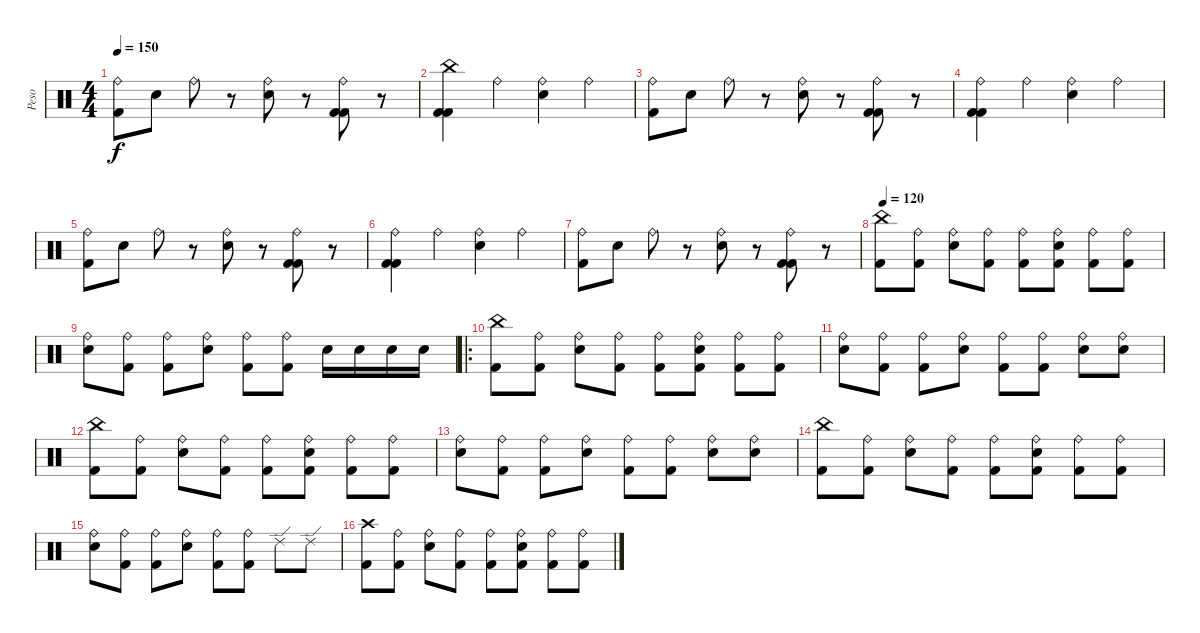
\track ("Peso" "Peso") {instrument percussion}
\staff {score}
\articulation defaults
\ts (4 4)
\tempo 150
\clef neutral
\ks c
("Ride (bell)" "Kick (hit) 2").8{dy f} "Snare (hit) 2".8 "Ride (bell)".8 r.8 ("Ride (bell)" "Snare (hit) 2").8 r.8 ("Ride (bell)" "Kick (hit) 2" "Kick (hit) 2").8 r.8 |
("China (hit)" "Kick (hit) 2" "Kick (hit) 2").4 "Ride (bell)".4 ("Ride (bell)" "Snare (hit) 2").4 "Ride (bell)".4 |
("Ride (bell)" "Kick (hit) 2").8 "Snare (hit) 2".8 "Ride (bell)".8 r.8 ("Ride (bell)" "Snare (hit) 2").8 r.8 ("Ride (bell)" "Kick (hit) 2" "Kick (hit) 2").8 r.8 |
("Ride (bell)" "Kick (hit) 2" "Kick (hit) 2").4 "Ride (bell)".4 ("Ride (bell)" "Snare (hit) 2").4 "Ride (bell)".4 |
("Ride (bell)" "Kick (hit) 2").8 "Snare (hit) 2".8 "Ride (bell)".8 r.8 ("Ride (bell)" "Snare (hit) 2").8 r.8 ("Ride (bell)" "Kick (hit) 2" "Kick (hit) 2").8 r.8 |
("Ride (bell)" "Kick (hit) 2" "Kick (hit) 2").4 "Ride (bell)".4 ("Ride (bell)" "Snare (hit) 2").4 "Ride (bell)".4 |
("Ride (bell)" "Kick (hit) 2").8 "Snare (hit) 2".8 "Ride (bell)".8 r.8 ("Ride (bell)" "Snare (hit) 2").8 r.8 ("Ride (bell)" "Kick (hit) 2" "Kick (hit) 2").8 r.8 |
\tempo 120
("China (hit)" "Kick (hit) 2").8 ("Ride (bell)" "Kick (hit) 2").8 ("Ride (bell)" "Snare (hit) 2").8 ("Ride (bell)" "Kick (hit) 2").8 ("Ride (bell)" "Kick (hit) 2").8 ("Ride (bell)" "Snare (hit) 2" "Kick (hit) 2").8 ("Ride (bell)" "Kick (hit) 2").8 ("Ride (bell)" "Kick (hit) 2").8 |
("Ride (bell)" "Snare (hit) 2").8 ("Ride (bell)" "Kick (hit) 2").8 ("Ride (bell)" "Kick (hit) 2").8 ("Ride (bell)" "Snare (hit) 2").8 ("Ride (bell)" "Kick (hit) 2").8 ("Ride (bell)" "Kick (hit) 2").8 "Snare (hit) 2".16 "Snare (hit) 2".16 "Snare (hit) 2".16 "Snare (hit) 2".16 |
\ro
("China (hit)" "Kick (hit) 2").8 ("Ride (bell)" "Kick (hit) 2").8 ("Ride (bell)" "Snare (hit) 2").8 ("Ride (bell)" "Kick (hit) 2").8 ("Ride (bell)" "Kick (hit) 2").8 ("Ride (bell)" "Snare (hit) 2" "Kick (hit) 2").8 ("Ride (bell)" "Kick (hit) 2").8 ("Ride (bell)" "Kick (hit) 2").8 |
("Ride (bell)" "Snare (hit) 2").8 ("Ride (bell)" "Kick (hit) 2").8 ("Ride (bell)" "Kick (hit) 2").8 ("Ride (bell)" "Snare (hit) 2").8 ("Ride (bell)" "Kick (hit) 2").8 ("Ride (bell)" "Kick (hit) 2").8 ("Ride (bell)" "Snare (hit) 2").8 ("Ride (bell)" "Snare (hit) 2").8 |
("China (hit)" "Kick (hit) 2").8 ("Ride (bell)" "Kick (hit) 2").8 ("Ride (bell)" "Snare (hit) 2").8 ("Ride (bell)" "Kick (hit) 2").8 ("Ride (bell)" "Kick (hit) 2").8 ("Ride (bell)" "Snare (hit) 2" "Kick (hit) 2").8 ("Ride (bell)" "Kick (hit) 2").8 ("Ride (bell)" "Kick (hit) 2").8 |
("Ride (bell)" "Snare (hit) 2").8 ("Ride (bell)" "Kick (hit) 2").8 ("Ride (bell)" "Kick (hit) 2").8 ("Ride (bell)" "Snare (hit) 2").8 ("Ride (bell)" "Kick (hit) 2").8 ("Ride (bell)" "Kick (hit) 2").8 ("Ride (bell)" "Snare (hit) 2").8 ("Ride (bell)" "Snare (hit) 2").8 |
("China (hit)" "Kick (hit) 2").8 ("Ride (bell)" "Kick (hit) 2").8 ("Ride (bell)" "Snare (hit) 2").8 ("Ride (bell)" "Kick (hit) 2").8 ("Ride (bell)" "Kick (hit) 2").8 ("Ride (bell)" "Snare (hit) 2" "Kick (hit) 2").8 ("Ride (bell)" "Kick (hit) 2").8 ("Ride (bell)" "Kick (hit) 2").8 |
("Ride (bell)" "Snare (hit) 2").8 ("Ride (bell)" "Kick (hit) 2").8 ("Ride (bell)" "Kick (hit) 2").8 ("Ride (bell)" "Snare (hit) 2").8 ("Ride (bell)" "Kick (hit) 2").8 ("Ride (bell)" "Kick (hit) 2").8 "Ride (edge) 2".8 "Ride (edge) 2".8 |
("Crash high (hit)" "Kick (hit) 2").8 ("Ride (bell)" "Kick (hit) 2").8 ("Ride (bell)" "Snare (hit) 2").8 ("Ride (bell)" "Kick (hit) 2").8 ("Ride (bell)" "Kick (hit) 2").8 ("Ride (bell)" "Snare (hit) 2" "Kick (hit) 2").8 ("Ride (bell)" "Kick (hit) 2").8 ("Ride (bell)" "Kick (hit) 2").8
